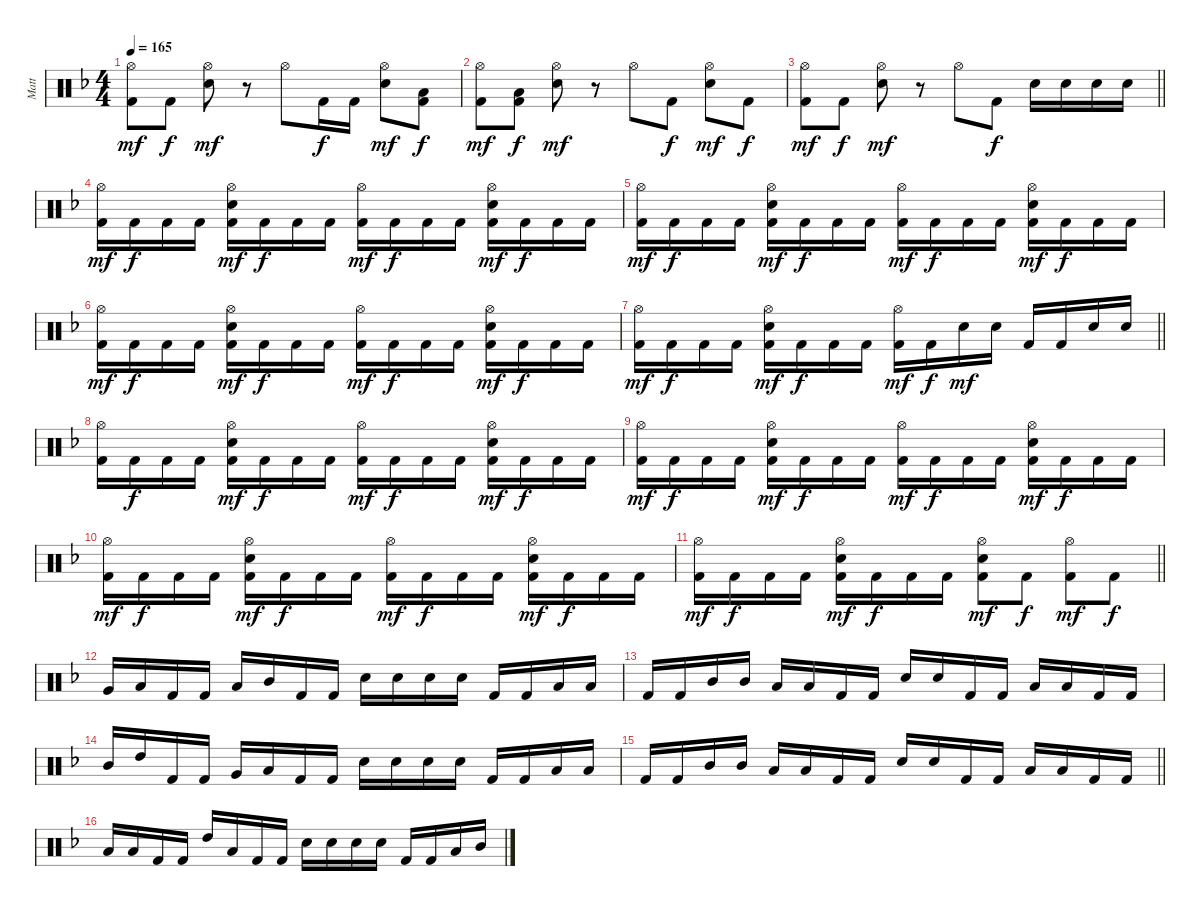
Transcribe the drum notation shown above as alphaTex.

\track ("Matt" "Matt") {instrument percussion}
\staff {score}
\articulation defaults
\ts (4 4)
\tempo 165
\clef neutral
\ks f
("Hi-Hat (open)" "Kick (hit) 2").8{dy mf} "Kick (hit) 2".8{dy f} ("Hi-Hat (open)" "Electric Snare (hit)").8{dy mf} r.8 "Hi-Hat (open)".8 "Kick (hit) 2".16{dy f} "Kick (hit) 2".16 ("Hi-Hat (open)" "Electric Snare (hit)").8{dy mf} ("Low Tom (hit)" "Kick (hit) 2").8{dy f} |
("Hi-Hat (open)" "Kick (hit) 2").8{dy mf} ("Low Tom (hit)" "Kick (hit) 2").8{dy f} ("Hi-Hat (open)" "Electric Snare (hit)").8{dy mf} r.8 "Hi-Hat (open)".8 "Kick (hit) 2".8{dy f} ("Hi-Hat (open)" "Electric Snare (hit)").8{dy mf} "Kick (hit) 2".8{dy f} |
\barLineRight lightlight
("Hi-Hat (open)" "Kick (hit) 2").8{dy mf} "Kick (hit) 2".8{dy f} ("Hi-Hat (open)" "Electric Snare (hit)").8{dy mf} r.8 "Hi-Hat (open)".8 "Kick (hit) 2".8{dy f} "Electric Snare (hit)".16 "Electric Snare (hit)".16 "Electric Snare (hit)".16 "Electric Snare (hit)".16 |
("Hi-Hat (open)" "Kick (hit) 2").16{dy mf} "Kick (hit) 2".16{dy f} "Kick (hit) 2".16 "Kick (hit) 2".16 ("Hi-Hat (open)" "Electric Snare (hit)" "Kick (hit) 2").16{dy mf} "Kick (hit) 2".16{dy f} "Kick (hit) 2".16 "Kick (hit) 2".16 ("Hi-Hat (open)" "Kick (hit) 2").16{dy mf} "Kick (hit) 2".16{dy f} "Kick (hit) 2".16 "Kick (hit) 2".16 ("Hi-Hat (open)" "Electric Snare (hit)" "Kick (hit) 2").16{dy mf} "Kick (hit) 2".16{dy f} "Kick (hit) 2".16 "Kick (hit) 2".16 |
("Hi-Hat (open)" "Kick (hit) 2").16{dy mf} "Kick (hit) 2".16{dy f} "Kick (hit) 2".16 "Kick (hit) 2".16 ("Hi-Hat (open)" "Electric Snare (hit)" "Kick (hit) 2").16{dy mf} "Kick (hit) 2".16{dy f} "Kick (hit) 2".16 "Kick (hit) 2".16 ("Hi-Hat (open)" "Kick (hit) 2").16{dy mf} "Kick (hit) 2".16{dy f} "Kick (hit) 2".16 "Kick (hit) 2".16 ("Hi-Hat (open)" "Electric Snare (hit)" "Kick (hit) 2").16{dy mf} "Kick (hit) 2".16{dy f} "Kick (hit) 2".16 "Kick (hit) 2".16 |
("Hi-Hat (open)" "Kick (hit) 2").16{dy mf} "Kick (hit) 2".16{dy f} "Kick (hit) 2".16 "Kick (hit) 2".16 ("Hi-Hat (open)" "Electric Snare (hit)" "Kick (hit) 2").16{dy mf} "Kick (hit) 2".16{dy f} "Kick (hit) 2".16 "Kick (hit) 2".16 ("Hi-Hat (open)" "Kick (hit) 2").16{dy mf} "Kick (hit) 2".16{dy f} "Kick (hit) 2".16 "Kick (hit) 2".16 ("Hi-Hat (open)" "Electric Snare (hit)" "Kick (hit) 2").16{dy mf} "Kick (hit) 2".16{dy f} "Kick (hit) 2".16 "Kick (hit) 2".16 |
\barLineRight lightlight
("Hi-Hat (open)" "Kick (hit) 2").16{dy mf} "Kick (hit) 2".16{dy f} "Kick (hit) 2".16 "Kick (hit) 2".16 ("Hi-Hat (open)" "Electric Snare (hit)" "Kick (hit) 2").16{dy mf} "Kick (hit) 2".16{dy f} "Kick (hit) 2".16 "Kick (hit) 2".16 ("Hi-Hat (open)" "Kick (hit) 2").16{dy mf} "Kick (hit) 2".16{dy f} "Electric Snare (hit)".16{dy mf} "Electric Snare (hit)".16 "Kick (hit) 2".16 "Kick (hit) 2".16 "Electric Snare (hit)".16 "Electric Snare (hit)".16 |
("Hi-Hat (open)" "Kick (hit) 2").16 "Kick (hit) 2".16{dy f} "Kick (hit) 2".16 "Kick (hit) 2".16 ("Hi-Hat (open)" "Electric Snare (hit)" "Kick (hit) 2").16{dy mf} "Kick (hit) 2".16{dy f} "Kick (hit) 2".16 "Kick (hit) 2".16 ("Hi-Hat (open)" "Kick (hit) 2").16{dy mf} "Kick (hit) 2".16{dy f} "Kick (hit) 2".16 "Kick (hit) 2".16 ("Hi-Hat (open)" "Electric Snare (hit)" "Kick (hit) 2").16{dy mf} "Kick (hit) 2".16{dy f} "Kick (hit) 2".16 "Kick (hit) 2".16 |
("Hi-Hat (open)" "Kick (hit) 2").16{dy mf} "Kick (hit) 2".16{dy f} "Kick (hit) 2".16 "Kick (hit) 2".16 ("Hi-Hat (open)" "Electric Snare (hit)" "Kick (hit) 2").16{dy mf} "Kick (hit) 2".16{dy f} "Kick (hit) 2".16 "Kick (hit) 2".16 ("Hi-Hat (open)" "Kick (hit) 2").16{dy mf} "Kick (hit) 2".16{dy f} "Kick (hit) 2".16 "Kick (hit) 2".16 ("Hi-Hat (open)" "Electric Snare (hit)" "Kick (hit) 2").16{dy mf} "Kick (hit) 2".16{dy f} "Kick (hit) 2".16 "Kick (hit) 2".16 |
("Hi-Hat (open)" "Kick (hit) 2").16{dy mf} "Kick (hit) 2".16{dy f} "Kick (hit) 2".16 "Kick (hit) 2".16 ("Hi-Hat (open)" "Electric Snare (hit)" "Kick (hit) 2").16{dy mf} "Kick (hit) 2".16{dy f} "Kick (hit) 2".16 "Kick (hit) 2".16 ("Hi-Hat (open)" "Kick (hit) 2").16{dy mf} "Kick (hit) 2".16{dy f} "Kick (hit) 2".16 "Kick (hit) 2".16 ("Hi-Hat (open)" "Electric Snare (hit)" "Kick (hit) 2").16{dy mf} "Kick (hit) 2".16{dy f} "Kick (hit) 2".16 "Kick (hit) 2".16 |
\barLineRight lightlight
("Hi-Hat (open)" "Kick (hit) 2").16{dy mf} "Kick (hit) 2".16{dy f} "Kick (hit) 2".16 "Kick (hit) 2".16 ("Hi-Hat (open)" "Electric Snare (hit)" "Kick (hit) 2").16{dy mf} "Kick (hit) 2".16{dy f} "Kick (hit) 2".16 "Kick (hit) 2".16 ("Hi-Hat (open)" "Electric Snare (hit)" "Kick (hit) 2").8{dy mf} "Kick (hit) 2".8{dy f} ("Hi-Hat (open)" "Kick (hit) 2").8{dy mf} "Kick (hit) 2".8{dy f} |
"Very Low Tom (hit)".16 "Low Tom (hit)".16 "Kick (hit) 2".16 "Kick (hit) 2".16 "Low Tom (hit)".16 "Mid Tom (hit)".16 "Kick (hit) 2".16 "Kick (hit) 2".16 "Electric Snare (hit)".16 "Electric Snare (hit)".16 "Electric Snare (hit)".16 "Electric Snare (hit)".16 "Kick (hit) 2".16 "Kick (hit) 2".16 "Low Tom (hit)".16 "Low Tom (hit)".16 |
"Kick (hit) 2".16 "Kick (hit) 2".16 "Mid Tom (hit)".16 "Mid Tom (hit)".16 "Low Tom (hit)".16 "Low Tom (hit)".16 "Kick (hit) 2".16 "Kick (hit) 2".16 "Electric Snare (hit)".16 "Electric Snare (hit)".16 "Kick (hit) 2".16 "Kick (hit) 2".16 "Low Tom (hit)".16 "Low Tom (hit)".16 "Kick (hit) 2".16 "Kick (hit) 2".16 |
"Mid Tom (hit)".16 "High Tom (hit)".16 "Kick (hit) 2".16 "Kick (hit) 2".16 "Very Low Tom (hit)".16 "Low Tom (hit)".16 "Kick (hit) 2".16 "Kick (hit) 2".16 "Electric Snare (hit)".16 "Electric Snare (hit)".16 "Electric Snare (hit)".16 "Electric Snare (hit)".16 "Kick (hit) 2".16 "Kick (hit) 2".16 "Low Tom (hit)".16 "Low Tom (hit)".16 |
\barLineRight lightlight "Kick (hit) 2".16 "Kick (hit) 2".16 "Mid Tom (hit)".16 "Mid Tom (hit)".16 "Low Tom (hit)".16 "Low Tom (hit)".16 "Kick (hit) 2".16 "Kick (hit) 2".16 "Electric Snare (hit)".16 "Electric Snare (hit)".16 "Kick (hit) 2".16 "Kick (hit) 2".16 "Low Tom (hit)".16 "Low Tom (hit)".16 "Kick (hit) 2".16 "Kick (hit) 2".16
|
"Low Tom (hit)".16 "Low Tom (hit)".16 "Kick (hit) 2".16 "Kick (hit) 2".16 "High Tom (hit)".16 "Low Tom (hit)".16 "Kick (hit) 2".16 "Kick (hit) 2".16 "Electric Snare (hit)".16 "Electric Snare (hit)".16 "Electric Snare (hit)".16 "Electric Snare (hit)".16 "Kick (hit) 2".16 "Kick (hit) 2".16 "Low Tom (hit)".16 "Mid Tom (hit)".16
